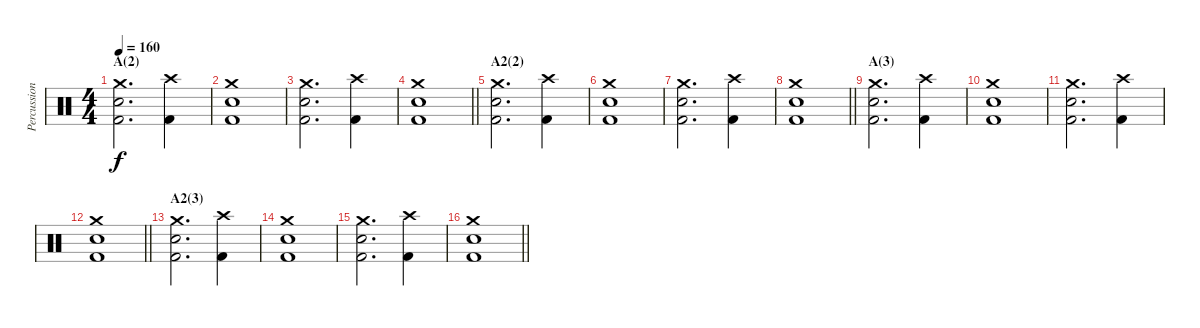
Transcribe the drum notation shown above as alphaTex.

\track ("Percussion" "Percussion") {instrument percussion}
\staff {score}
\articulation defaults
\ts (4 4)
\section ("" "A(2)")
\tempo 160
\clef neutral
\ks c
("Crash medium (hit)" "Electric Snare (hit)" "Kick (hit) 2").2{d dy f} ("Crash high (hit)" "Kick (hit) 2").4 |
("Crash medium (hit)" "Electric Snare (hit)" "Kick (hit) 2").1 |
("Crash medium (hit)" "Electric Snare (hit)" "Kick (hit) 2").2{d} ("Crash high (hit)" "Kick (hit) 2").4 |
\barLineRight lightlight
("Crash medium (hit)" "Electric Snare (hit)" "Kick (hit) 2").1 |
\section ("" "A2(2)")
("Crash medium (hit)" "Electric Snare (hit)" "Kick (hit) 2").2{d} ("Crash high (hit)" "Kick (hit) 2").4 |
("Crash medium (hit)" "Electric Snare (hit)" "Kick (hit) 2").1 |
("Crash medium (hit)" "Electric Snare (hit)" "Kick (hit) 2").2{d} ("Crash high (hit)" "Kick (hit) 2").4 |
\barLineRight lightlight
("Crash medium (hit)" "Electric Snare (hit)" "Kick (hit) 2").1 |
\section ("" "A(3)")
("Crash medium (hit)" "Electric Snare (hit)" "Kick (hit) 2").2{d} ("Crash high (hit)" "Kick (hit) 2").4 |
("Crash medium (hit)" "Electric Snare (hit)" "Kick (hit) 2").1 |
("Crash medium (hit)" "Electric Snare (hit)" "Kick (hit) 2").2{d} ("Crash high (hit)" "Kick (hit) 2").4 |
\barLineRight lightlight
("Crash medium (hit)" "Electric Snare (hit)" "Kick (hit) 2").1 |
\section ("" "A2(3)")
("Crash medium (hit)" "Electric Snare (hit)" "Kick (hit) 2").2{d} ("Crash high (hit)" "Kick (hit) 2").4 |
("Crash medium (hit)" "Electric Snare (hit)" "Kick (hit) 2").1 |
("Crash medium (hit)" "Electric Snare (hit)" "Kick (hit) 2").2{d} ("Crash high (hit)" "Kick (hit) 2").4 |
\barLineRight lightlight
("Crash medium (hit)" "Electric Snare (hit)" "Kick (hit) 2").1
